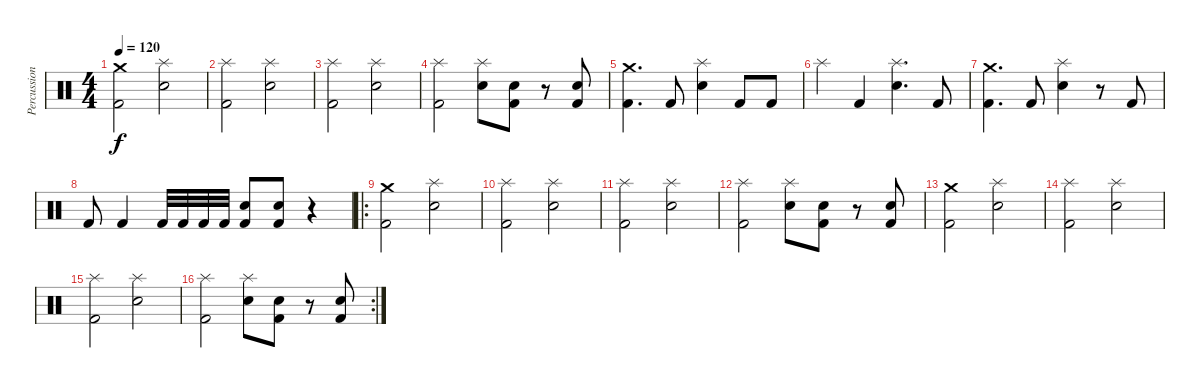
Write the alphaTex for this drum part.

\track ("Percussion" "Percussion") {instrument percussion}
\staff {score}
\articulation defaults
\ts (4 4)
\tempo 120
\clef neutral
\ks c
("Crash medium (hit)" "Kick (hit) 2").2{dy f} ("Splash (hit)" "Electric Snare (hit)").2 |
("Splash (hit)" "Kick (hit) 2").2 ("Splash (hit)" "Electric Snare (hit)").2 |
("Splash (hit)" "Kick (hit) 2").2 ("Splash (hit)" "Electric Snare (hit)").2 |
("Splash (hit)" "Kick (hit) 2").2 ("Splash (hit)" "Electric Snare (hit)").8 ("Electric Snare (hit)" "Kick (hit) 2").8 r.8 ("Electric Snare (hit)" "Kick (hit) 2").8 |
("Crash medium (hit)" "Kick (hit) 2").4{d} "Kick (hit) 2".8 ("Splash (hit)" "Electric Snare (hit)").4 "Kick (hit) 2".8 "Kick (hit) 2".8 |
"Splash (hit)".4 "Kick (hit) 2".4 ("Splash (hit)" "Electric Snare (hit)").4{d} "Kick (hit) 2".8 |
("Crash medium (hit)" "Kick (hit) 2").4{d} "Kick (hit) 2".8 ("Splash (hit)" "Electric Snare (hit)").4 r.8 "Kick (hit) 2".8 |
"Kick (hit) 2".8 "Kick (hit) 2".4 "Kick (hit) 2".32 "Kick (hit) 2".32 "Kick (hit) 2".32 "Kick (hit) 2".32 ("Electric Snare (hit)" "Kick (hit) 2").8 ("Electric Snare (hit)" "Kick (hit) 2").8 r.4 |
\ro
("Crash medium (hit)" "Kick (hit) 2").2 ("Splash (hit)" "Electric Snare (hit)").2 |
("Splash (hit)" "Kick (hit) 2").2 ("Splash (hit)" "Electric Snare (hit)").2 |
("Splash (hit)" "Kick (hit) 2").2 ("Splash (hit)" "Electric Snare (hit)").2 |
("Splash (hit)" "Kick (hit) 2").2 ("Splash (hit)" "Electric Snare (hit)").8 ("Electric Snare (hit)" "Kick (hit) 2").8 r.8 ("Electric Snare (hit)" "Kick (hit) 2").8 |
("Crash medium (hit)" "Kick (hit) 2").2 ("Splash (hit)" "Electric Snare (hit)").2 |
("Splash (hit)" "Kick (hit) 2").2 ("Splash (hit)" "Electric Snare (hit)").2 |
("Splash (hit)" "Kick (hit) 2").2 ("Splash (hit)" "Electric Snare (hit)").2 |
\rc 2
("Splash (hit)" "Kick (hit) 2").2 ("Splash (hit)" "Electric Snare (hit)").8 ("Electric Snare (hit)" "Kick (hit) 2").8 r.8 ("Electric Snare (hit)" "Kick (hit) 2").8
